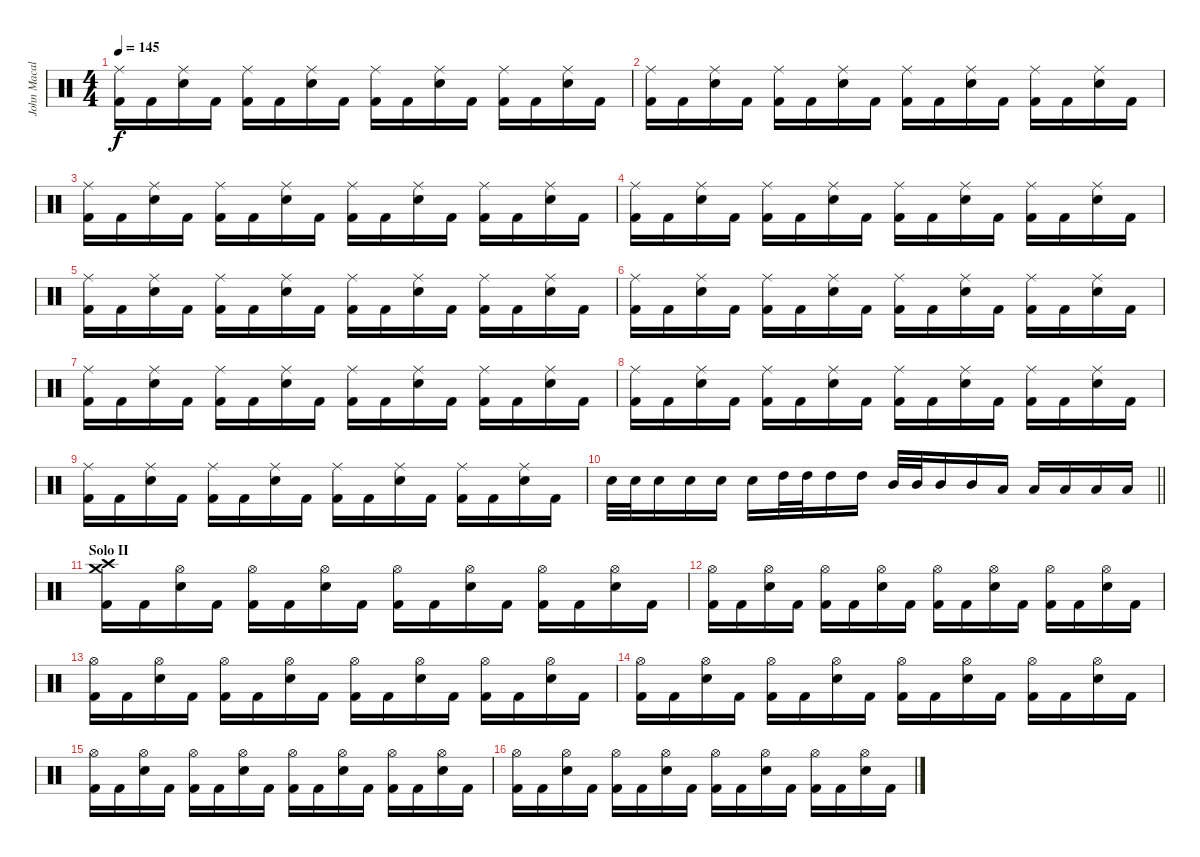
\track ("John Macaluso" "John Macal") {instrument percussion}
\staff {score}
\articulation defaults
\ts (4 4)
\tempo 145
\clef neutral
\ks c
("Ride (middle)" "Kick (hit) 2").16{dy f} "Kick (hit) 2".16 ("Ride (middle)" "Snare (hit) 2").16 "Kick (hit) 2".16 ("Ride (middle)" "Kick (hit) 2").16 "Kick (hit) 2".16 ("Ride (middle)" "Snare (hit) 2").16 "Kick (hit) 2".16 ("Ride (middle)" "Kick (hit) 2").16 "Kick (hit) 2".16 ("Ride (middle)" "Snare (hit) 2").16 "Kick (hit) 2".16 ("Ride (middle)" "Kick (hit) 2").16 "Kick (hit) 2".16 ("Ride (middle)" "Snare (hit) 2").16 "Kick (hit) 2".16 |
("Ride (middle)" "Kick (hit) 2").16 "Kick (hit) 2".16 ("Ride (middle)" "Snare (hit) 2").16 "Kick (hit) 2".16 ("Ride (middle)" "Kick (hit) 2").16 "Kick (hit) 2".16 ("Ride (middle)" "Snare (hit) 2").16 "Kick (hit) 2".16 ("Ride (middle)" "Kick (hit) 2").16 "Kick (hit) 2".16 ("Ride (middle)" "Snare (hit) 2").16 "Kick (hit) 2".16 ("Ride (middle)" "Kick (hit) 2").16 "Kick (hit) 2".16 ("Ride (middle)" "Snare (hit) 2").16 "Kick (hit) 2".16 |
("Ride (middle)" "Kick (hit) 2").16 "Kick (hit) 2".16 ("Ride (middle)" "Snare (hit) 2").16 "Kick (hit) 2".16 ("Ride (middle)" "Kick (hit) 2").16 "Kick (hit) 2".16 ("Ride (middle)" "Snare (hit) 2").16 "Kick (hit) 2".16 ("Ride (middle)" "Kick (hit) 2").16 "Kick (hit) 2".16 ("Ride (middle)" "Snare (hit) 2").16 "Kick (hit) 2".16 ("Ride (middle)" "Kick (hit) 2").16 "Kick (hit) 2".16 ("Ride (middle)" "Snare (hit) 2").16 "Kick (hit) 2".16 |
("Ride (middle)" "Kick (hit) 2").16 "Kick (hit) 2".16 ("Ride (middle)" "Snare (hit) 2").16 "Kick (hit) 2".16 ("Ride (middle)" "Kick (hit) 2").16 "Kick (hit) 2".16 ("Ride (middle)" "Snare (hit) 2").16 "Kick (hit) 2".16 ("Ride (middle)" "Kick (hit) 2").16 "Kick (hit) 2".16 ("Ride (middle)" "Snare (hit) 2").16 "Kick (hit) 2".16 ("Ride (middle)" "Kick (hit) 2").16 "Kick (hit) 2".16 ("Ride (middle)" "Snare (hit) 2").16 "Kick (hit) 2".16 |
("Ride (middle)" "Kick (hit) 2").16 "Kick (hit) 2".16 ("Ride (middle)" "Snare (hit) 2").16 "Kick (hit) 2".16 ("Ride (middle)" "Kick (hit) 2").16 "Kick (hit) 2".16 ("Ride (middle)" "Snare (hit) 2").16 "Kick (hit) 2".16 ("Ride (middle)" "Kick (hit) 2").16 "Kick (hit) 2".16 ("Ride (middle)" "Snare (hit) 2").16 "Kick (hit) 2".16 ("Ride (middle)" "Kick (hit) 2").16 "Kick (hit) 2".16 ("Ride (middle)" "Snare (hit) 2").16 "Kick (hit) 2".16 |
("Ride (middle)" "Kick (hit) 2").16 "Kick (hit) 2".16 ("Ride (middle)" "Snare (hit) 2").16 "Kick (hit) 2".16 ("Ride (middle)" "Kick (hit) 2").16 "Kick (hit) 2".16 ("Ride (middle)" "Snare (hit) 2").16 "Kick (hit) 2".16 ("Ride (middle)" "Kick (hit) 2").16 "Kick (hit) 2".16 ("Ride (middle)" "Snare (hit) 2").16 "Kick (hit) 2".16 ("Ride (middle)" "Kick (hit) 2").16 "Kick (hit) 2".16 ("Ride (middle)" "Snare (hit) 2").16 "Kick (hit) 2".16 |
("Ride (middle)" "Kick (hit) 2").16 "Kick (hit) 2".16 ("Ride (middle)" "Snare (hit) 2").16 "Kick (hit) 2".16 ("Ride (middle)" "Kick (hit) 2").16 "Kick (hit) 2".16 ("Ride (middle)" "Snare (hit) 2").16 "Kick (hit) 2".16 ("Ride (middle)" "Kick (hit) 2").16 "Kick (hit) 2".16 ("Ride (middle)" "Snare (hit) 2").16 "Kick (hit) 2".16 ("Ride (middle)" "Kick (hit) 2").16 "Kick (hit) 2".16 ("Ride (middle)" "Snare (hit) 2").16 "Kick (hit) 2".16 |
("Ride (middle)" "Kick (hit) 2").16 "Kick (hit) 2".16 ("Ride (middle)" "Snare (hit) 2").16 "Kick (hit) 2".16 ("Ride (middle)" "Kick (hit) 2").16 "Kick (hit) 2".16 ("Ride (middle)" "Snare (hit) 2").16 "Kick (hit) 2".16 ("Ride (middle)" "Kick (hit) 2").16 "Kick (hit) 2".16 ("Ride (middle)" "Snare (hit) 2").16 "Kick (hit) 2".16 ("Ride (middle)" "Kick (hit) 2").16 "Kick (hit) 2".16 ("Ride (middle)" "Snare (hit) 2").16 "Kick (hit) 2".16 |
("Ride (middle)" "Kick (hit) 2").16 "Kick (hit) 2".16 ("Ride (middle)" "Snare (hit) 2").16 "Kick (hit) 2".16 ("Ride (middle)" "Kick (hit) 2").16 "Kick (hit) 2".16 ("Ride (middle)" "Snare (hit) 2").16 "Kick (hit) 2".16 ("Ride (middle)" "Kick (hit) 2").16 "Kick (hit) 2".16 ("Ride (middle)" "Snare (hit) 2").16 "Kick (hit) 2".16 ("Ride (middle)" "Kick (hit) 2").16 "Kick (hit) 2".16 ("Ride (middle)" "Snare (hit) 2").16 "Kick (hit) 2".16 |
\barLineRight lightlight "Snare (hit) 2".32 "Snare (hit) 2".32 "Snare (hit) 2".16 "Snare (hit) 2".16 "Snare (hit) 2".16 "Snare (hit) 2".16 "High Tom (hit)".32 "High Tom (hit)".32 "High Tom (hit)".16 "High Tom (hit)".16 "Mid Tom (hit)".32 "Mid Tom (hit)".32 "Mid Tom (hit)".16 "Mid Tom (hit)".16 "Low Tom (hit)".16 "Low Tom (hit)".16 "Low Tom (hit)".16 "Low Tom (hit)".16 "Low Tom (hit)".16
|
\section ("" "Solo II")
("Crash high (hit)" "Crash medium (hit)" "Kick (hit) 2").16 "Kick (hit) 2".16 ("Hi-Hat (open)" "Snare (hit) 2").16 "Kick (hit) 2".16 ("Hi-Hat (open)" "Kick (hit) 2").16 "Kick (hit) 2".16 ("Hi-Hat (open)" "Snare (hit) 2").16 "Kick (hit) 2".16 ("Hi-Hat (open)" "Kick (hit) 2").16 "Kick (hit) 2".16 ("Hi-Hat (open)" "Snare (hit) 2").16 "Kick (hit) 2".16 ("Hi-Hat (open)" "Kick (hit) 2").16 "Kick (hit) 2".16 ("Hi-Hat (open)" "Snare (hit) 2").16 "Kick (hit) 2".16 |
("Hi-Hat (open)" "Kick (hit) 2").16 "Kick (hit) 2".16 ("Hi-Hat (open)" "Snare (hit) 2").16 "Kick (hit) 2".16 ("Hi-Hat (open)" "Kick (hit) 2").16 "Kick (hit) 2".16 ("Hi-Hat (open)" "Snare (hit) 2").16 "Kick (hit) 2".16 ("Hi-Hat (open)" "Kick (hit) 2").16 "Kick (hit) 2".16 ("Hi-Hat (open)" "Snare (hit) 2").16 "Kick (hit) 2".16 ("Hi-Hat (open)" "Kick (hit) 2").16 "Kick (hit) 2".16 ("Hi-Hat (open)" "Snare (hit) 2").16 "Kick (hit) 2".16 |
("Hi-Hat (open)" "Kick (hit) 2").16 "Kick (hit) 2".16 ("Hi-Hat (open)" "Snare (hit) 2").16 "Kick (hit) 2".16 ("Hi-Hat (open)" "Kick (hit) 2").16 "Kick (hit) 2".16 ("Hi-Hat (open)" "Snare (hit) 2").16 "Kick (hit) 2".16 ("Hi-Hat (open)" "Kick (hit) 2").16 "Kick (hit) 2".16 ("Hi-Hat (open)" "Snare (hit) 2").16 "Kick (hit) 2".16 ("Hi-Hat (open)" "Kick (hit) 2").16 "Kick (hit) 2".16 ("Hi-Hat (open)" "Snare (hit) 2").16 "Kick (hit) 2".16 |
("Hi-Hat (open)" "Kick (hit) 2").16 "Kick (hit) 2".16 ("Hi-Hat (open)" "Snare (hit) 2").16 "Kick (hit) 2".16 ("Hi-Hat (open)" "Kick (hit) 2").16 "Kick (hit) 2".16 ("Hi-Hat (open)" "Snare (hit) 2").16 "Kick (hit) 2".16 ("Hi-Hat (open)" "Kick (hit) 2").16 "Kick (hit) 2".16 ("Hi-Hat (open)" "Snare (hit) 2").16 "Kick (hit) 2".16 ("Hi-Hat (open)" "Kick (hit) 2").16 "Kick (hit) 2".16 ("Hi-Hat (open)" "Snare (hit) 2").16 "Kick (hit) 2".16 |
("Hi-Hat (open)" "Kick (hit) 2").16 "Kick (hit) 2".16 ("Hi-Hat (open)" "Snare (hit) 2").16 "Kick (hit) 2".16 ("Hi-Hat (open)" "Kick (hit) 2").16 "Kick (hit) 2".16 ("Hi-Hat (open)" "Snare (hit) 2").16 "Kick (hit) 2".16 ("Hi-Hat (open)" "Kick (hit) 2").16 "Kick (hit) 2".16 ("Hi-Hat (open)" "Snare (hit) 2").16 "Kick (hit) 2".16 ("Hi-Hat (open)" "Kick (hit) 2").16 "Kick (hit) 2".16 ("Hi-Hat (open)" "Snare (hit) 2").16 "Kick (hit) 2".16 |
("Hi-Hat (open)" "Kick (hit) 2").16 "Kick (hit) 2".16 ("Hi-Hat (open)" "Snare (hit) 2").16 "Kick (hit) 2".16 ("Hi-Hat (open)" "Kick (hit) 2").16 "Kick (hit) 2".16 ("Hi-Hat (open)" "Snare (hit) 2").16 "Kick (hit) 2".16 ("Hi-Hat (open)" "Kick (hit) 2").16 "Kick (hit) 2".16 ("Hi-Hat (open)" "Snare (hit) 2").16 "Kick (hit) 2".16 ("Hi-Hat (open)" "Kick (hit) 2").16 "Kick (hit) 2".16 ("Hi-Hat (open)" "Snare (hit) 2").16 "Kick (hit) 2".16
